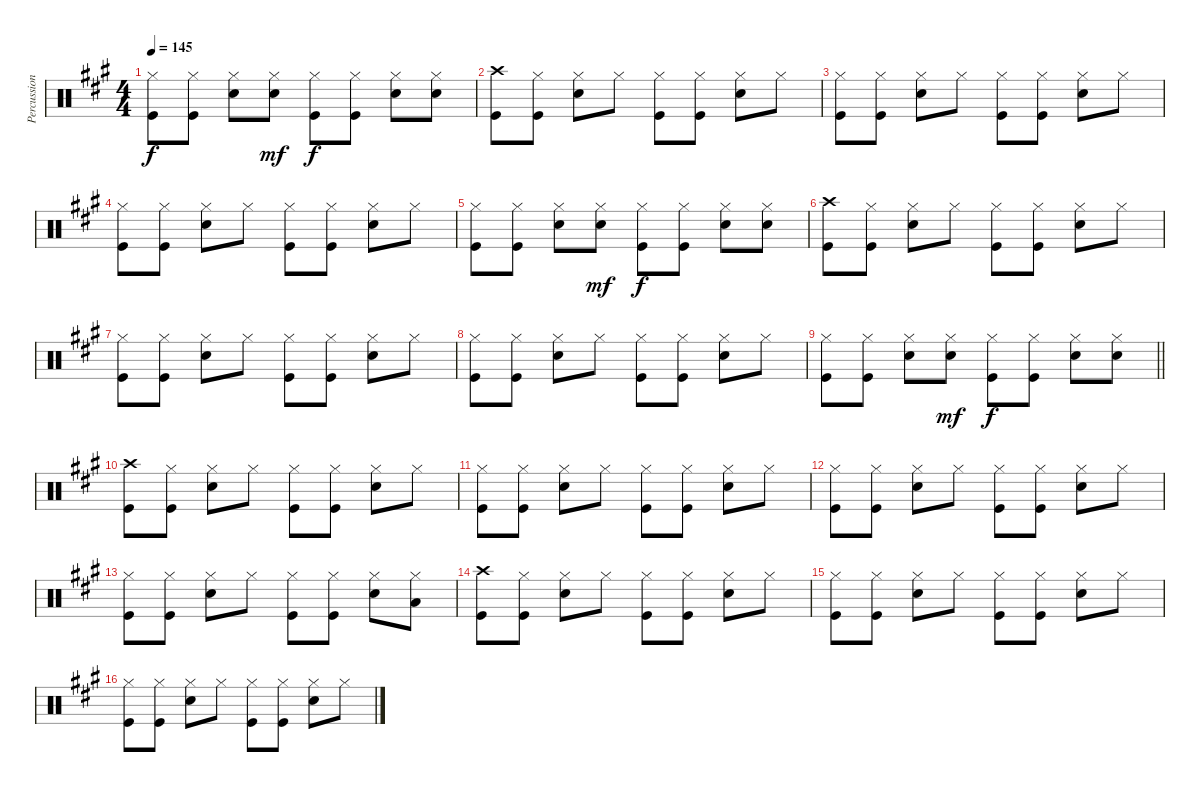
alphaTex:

\track ("Percussion" "Percussion") {instrument percussion}
\staff {score}
\articulation defaults
\ts (4 4)
\tempo 145
\clef neutral
\ks a
("Hi-Hat (closed)" "Kick (hit)").8{dy f} ("Hi-Hat (closed)" "Kick (hit)").8 ("Hi-Hat (closed)" "Snare (hit) 2").8 ("Hi-Hat (closed)" "Snare (hit) 2").8{dy mf} ("Hi-Hat (closed)" "Kick (hit)").8{dy f} ("Hi-Hat (closed)" "Kick (hit)").8 ("Hi-Hat (closed)" "Snare (hit) 2").8 ("Hi-Hat (closed)" "Snare (hit) 2").8 |
("Crash high (hit)" "Kick (hit)").8 ("Hi-Hat (closed)" "Kick (hit)").8 ("Hi-Hat (closed)" "Snare (hit) 2").8 "Hi-Hat (closed)".8 ("Hi-Hat (closed)" "Kick (hit)").8 ("Hi-Hat (closed)" "Kick (hit)").8 ("Hi-Hat (closed)" "Snare (hit) 2").8 "Hi-Hat (closed)".8 |
("Hi-Hat (closed)" "Kick (hit)").8 ("Hi-Hat (closed)" "Kick (hit)").8 ("Hi-Hat (closed)" "Snare (hit) 2").8 "Hi-Hat (closed)".8 ("Hi-Hat (closed)" "Kick (hit)").8 ("Hi-Hat (closed)" "Kick (hit)").8 ("Hi-Hat (closed)" "Snare (hit) 2").8 "Hi-Hat (closed)".8 |
("Hi-Hat (closed)" "Kick (hit)").8 ("Hi-Hat (closed)" "Kick (hit)").8 ("Hi-Hat (closed)" "Snare (hit) 2").8 "Hi-Hat (closed)".8 ("Hi-Hat (closed)" "Kick (hit)").8 ("Hi-Hat (closed)" "Kick (hit)").8 ("Hi-Hat (closed)" "Snare (hit) 2").8 "Hi-Hat (closed)".8 |
("Hi-Hat (closed)" "Kick (hit)").8 ("Hi-Hat (closed)" "Kick (hit)").8 ("Hi-Hat (closed)" "Snare (hit) 2").8 ("Hi-Hat (closed)" "Snare (hit) 2").8{dy mf} ("Hi-Hat (closed)" "Kick (hit)").8{dy f} ("Hi-Hat (closed)" "Kick (hit)").8 ("Hi-Hat (closed)" "Snare (hit) 2").8 ("Hi-Hat (closed)" "Snare (hit) 2").8 |
("Crash high (hit)" "Kick (hit)").8 ("Hi-Hat (closed)" "Kick (hit)").8 ("Hi-Hat (closed)" "Snare (hit) 2").8 "Hi-Hat (closed)".8 ("Hi-Hat (closed)" "Kick (hit)").8 ("Hi-Hat (closed)" "Kick (hit)").8 ("Hi-Hat (closed)" "Snare (hit) 2").8 "Hi-Hat (closed)".8 |
("Hi-Hat (closed)" "Kick (hit)").8 ("Hi-Hat (closed)" "Kick (hit)").8 ("Hi-Hat (closed)" "Snare (hit) 2").8 "Hi-Hat (closed)".8 ("Hi-Hat (closed)" "Kick (hit)").8 ("Hi-Hat (closed)" "Kick (hit)").8 ("Hi-Hat (closed)" "Snare (hit) 2").8 "Hi-Hat (closed)".8 |
("Hi-Hat (closed)" "Kick (hit)").8 ("Hi-Hat (closed)" "Kick (hit)").8 ("Hi-Hat (closed)" "Snare (hit) 2").8 "Hi-Hat (closed)".8 ("Hi-Hat (closed)" "Kick (hit)").8 ("Hi-Hat (closed)" "Kick (hit)").8 ("Hi-Hat (closed)" "Snare (hit) 2").8 "Hi-Hat (closed)".8 |
\barLineRight lightlight
("Hi-Hat (closed)" "Kick (hit)").8 ("Hi-Hat (closed)" "Kick (hit)").8 ("Hi-Hat (closed)" "Snare (hit) 2").8 ("Hi-Hat (closed)" "Snare (hit) 2").8{dy mf} ("Hi-Hat (closed)" "Kick (hit)").8{dy f} ("Hi-Hat (closed)" "Kick (hit)").8 ("Hi-Hat (closed)" "Snare (hit) 2").8 ("Hi-Hat (closed)" "Snare (hit) 2").8 |
("Crash high (hit)" "Kick (hit)").8 ("Hi-Hat (closed)" "Kick (hit)").8 ("Hi-Hat (closed)" "Snare (hit) 2").8 "Hi-Hat (closed)".8 ("Hi-Hat (closed)" "Kick (hit)").8 ("Hi-Hat (closed)" "Kick (hit)").8 ("Hi-Hat (closed)" "Snare (hit) 2").8 "Hi-Hat (closed)".8 |
("Hi-Hat (closed)" "Kick (hit)").8 ("Hi-Hat (closed)" "Kick (hit)").8 ("Hi-Hat (closed)" "Snare (hit) 2").8 "Hi-Hat (closed)".8 ("Hi-Hat (closed)" "Kick (hit)").8 ("Hi-Hat (closed)" "Kick (hit)").8 ("Hi-Hat (closed)" "Snare (hit) 2").8 "Hi-Hat (closed)".8 |
("Hi-Hat (closed)" "Kick (hit)").8 ("Hi-Hat (closed)" "Kick (hit)").8 ("Hi-Hat (closed)" "Snare (hit) 2").8 "Hi-Hat (closed)".8 ("Hi-Hat (closed)" "Kick (hit)").8 ("Hi-Hat (closed)" "Kick (hit)").8 ("Hi-Hat (closed)" "Snare (hit) 2").8 "Hi-Hat (closed)".8 |
("Hi-Hat (closed)" "Kick (hit)").8 ("Hi-Hat (closed)" "Kick (hit)").8 ("Hi-Hat (closed)" "Snare (hit) 2").8 "Hi-Hat (closed)".8 ("Hi-Hat (closed)" "Kick (hit)").8 ("Hi-Hat (closed)" "Kick (hit)").8 ("Hi-Hat (closed)" "Snare (hit) 2").8 ("Hi-Hat (closed)" "Low Tom (hit)").8 |
("Crash high (hit)" "Kick (hit)").8 ("Hi-Hat (closed)" "Kick (hit)").8 ("Hi-Hat (closed)" "Snare (hit) 2").8 "Hi-Hat (closed)".8 ("Hi-Hat (closed)" "Kick (hit)").8 ("Hi-Hat (closed)" "Kick (hit)").8 ("Hi-Hat (closed)" "Snare (hit) 2").8 "Hi-Hat (closed)".8 |
("Hi-Hat (closed)" "Kick (hit)").8 ("Hi-Hat (closed)" "Kick (hit)").8 ("Hi-Hat (closed)" "Snare (hit) 2").8 "Hi-Hat (closed)".8 ("Hi-Hat (closed)" "Kick (hit)").8 ("Hi-Hat (closed)" "Kick (hit)").8 ("Hi-Hat (closed)" "Snare (hit) 2").8 "Hi-Hat (closed)".8 |
("Hi-Hat (closed)" "Kick (hit)").8 ("Hi-Hat (closed)" "Kick (hit)").8 ("Hi-Hat (closed)" "Snare (hit) 2").8 "Hi-Hat (closed)".8 ("Hi-Hat (closed)" "Kick (hit)").8 ("Hi-Hat (closed)" "Kick (hit)").8 ("Hi-Hat (closed)" "Snare (hit) 2").8 "Hi-Hat (closed)".8
